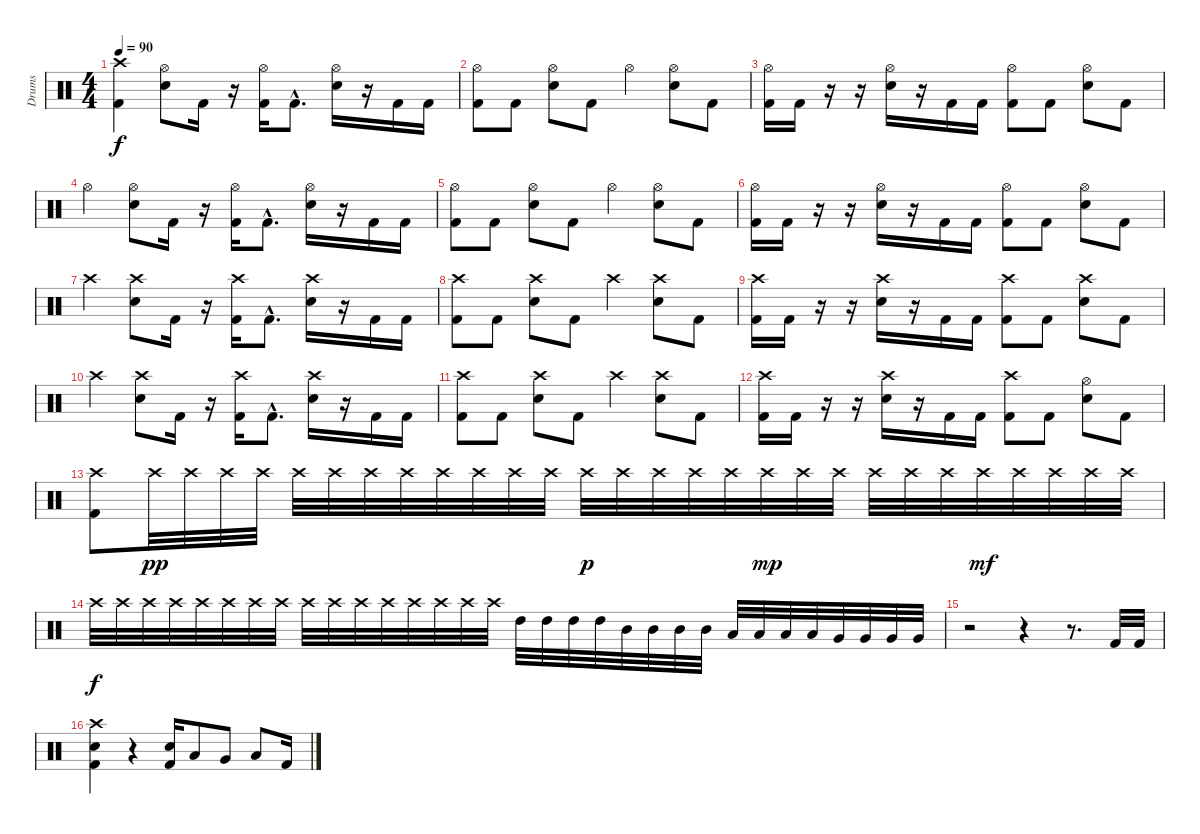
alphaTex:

\track ("Drums" "Drums") {instrument percussion}
\staff {score}
\articulation defaults
\ts (4 4)
\tempo 90
\clef neutral
\ks c
("Crash high (hit)" "Kick (hit) 2").4{dy f} ("Hi-Hat (open)" "Electric Snare (hit)").8 "Kick (hit) 2".16 r.16 ("Hi-Hat (open)" "Kick (hit) 2").16 "Kick (hit) 2"{hac}.8{d} ("Hi-Hat (open)" "Electric Snare (hit)").16 r.16 "Kick (hit) 2".16 "Kick (hit) 2".16 |
("Hi-Hat (open)" "Kick (hit) 2").8 "Kick (hit) 2".8 ("Hi-Hat (open)" "Electric Snare (hit)").8 "Kick (hit) 2".8 "Hi-Hat (open)".4 ("Hi-Hat (open)" "Electric Snare (hit)").8 "Kick (hit) 2".8 |
("Hi-Hat (open)" "Kick (hit) 2").16 "Kick (hit) 2".16 r.16 r.16 ("Hi-Hat (open)" "Electric Snare (hit)").16 r.16 "Kick (hit) 2".16 "Kick (hit) 2".16 ("Hi-Hat (open)" "Kick (hit) 2").8 "Kick (hit) 2".8 ("Hi-Hat (open)" "Electric Snare (hit)").8 "Kick (hit) 2".8 |
"Hi-Hat (open)".4 ("Hi-Hat (open)" "Electric Snare (hit)").8 "Kick (hit) 2".16 r.16 ("Hi-Hat (open)" "Kick (hit) 2").16 "Kick (hit) 2"{hac}.8{d} ("Hi-Hat (open)" "Electric Snare (hit)").16 r.16 "Kick (hit) 2".16 "Kick (hit) 2".16 |
("Hi-Hat (open)" "Kick (hit) 2").8 "Kick (hit) 2".8 ("Hi-Hat (open)" "Electric Snare (hit)").8 "Kick (hit) 2".8 "Hi-Hat (open)".4 ("Hi-Hat (open)" "Electric Snare (hit)").8 "Kick (hit) 2".8 |
("Hi-Hat (open)" "Kick (hit) 2").16 "Kick (hit) 2".16 r.16 r.16 ("Hi-Hat (open)" "Electric Snare (hit)").16 r.16 "Kick (hit) 2".16 "Kick (hit) 2".16 ("Hi-Hat (open)" "Kick (hit) 2").8 "Kick (hit) 2".8 ("Hi-Hat (open)" "Electric Snare (hit)").8 "Kick (hit) 2".8 |
"Crash high (hit)".4 ("Crash high (hit)" "Electric Snare (hit)").8 "Kick (hit) 2".16 r.16 ("Crash high (hit)" "Kick (hit) 2").16 "Kick (hit) 2"{hac}.8{d} ("Crash high (hit)" "Electric Snare (hit)").16 r.16 "Kick (hit) 2".16 "Kick (hit) 2".16 |
("Crash high (hit)" "Kick (hit) 2").8 "Kick (hit) 2".8 ("Crash high (hit)" "Electric Snare (hit)").8 "Kick (hit) 2".8 "Crash high (hit)".4 ("Crash high (hit)" "Electric Snare (hit)").8 "Kick (hit) 2".8 |
("Crash high (hit)" "Kick (hit) 2").16 "Kick (hit) 2".16 r.16 r.16 ("Crash high (hit)" "Electric Snare (hit)").16 r.16 "Kick (hit) 2".16 "Kick (hit) 2".16 ("Crash high (hit)" "Kick (hit) 2").8 "Kick (hit) 2".8 ("Crash high (hit)" "Electric Snare (hit)").8 "Kick (hit) 2".8 |
"Crash high (hit)".4 ("Crash high (hit)" "Electric Snare (hit)").8 "Kick (hit) 2".16 r.16 ("Crash high (hit)" "Kick (hit) 2").16 "Kick (hit) 2"{hac}.8{d} ("Crash high (hit)" "Electric Snare (hit)").16 r.16 "Kick (hit) 2".16 "Kick (hit) 2".16 |
("Crash high (hit)" "Kick (hit) 2").8 "Kick (hit) 2".8 ("Crash high (hit)" "Electric Snare (hit)").8 "Kick (hit) 2".8 "Crash high (hit)".4 ("Crash high (hit)" "Electric Snare (hit)").8 "Kick (hit) 2".8 |
("Crash high (hit)" "Kick (hit) 2").16 "Kick (hit) 2".16 r.16 r.16 ("Crash high (hit)" "Electric Snare (hit)").16 r.16 "Kick (hit) 2".16 "Kick (hit) 2".16 ("Crash high (hit)" "Kick (hit) 2").8 "Kick (hit) 2".8 ("Hi-Hat (open)" "Electric Snare (hit)").8 "Kick (hit) 2".8 |
("Crash high (hit)" "Kick (hit) 2").8 "Crash high (hit)".32{dy pp} "Crash high (hit)".32 "Crash high (hit)".32 "Crash high (hit)".32 "Crash high (hit)".32 "Crash high (hit)".32 "Crash high (hit)".32 "Crash high (hit)".32 "Crash high (hit)".32 "Crash high (hit)".32 "Crash high (hit)".32 "Crash high (hit)".32 "Crash high (hit)".32{dy p} "Crash high (hit)".32 "Crash high (hit)".32 "Crash high (hit)".32 "Crash high (hit)".32 "Crash high (hit)".32{dy mp} "Crash high (hit)".32 "Crash high (hit)".32 "Crash high (hit)".32 "Crash high (hit)".32 "Crash high (hit)".32 "Crash high (hit)".32{dy mf} "Crash high (hit)".32 "Crash high (hit)".32 "Crash high (hit)".32 "Crash high (hit)".32 |
"Crash high (hit)".32{dy f} "Crash high (hit)".32 "Crash high (hit)".32 "Crash high (hit)".32 "Crash high (hit)".32 "Crash high (hit)".32 "Crash high (hit)".32 "Crash high (hit)".32 "Crash high (hit)".32 "Crash high (hit)".32 "Crash high (hit)".32 "Crash high (hit)".32 "Crash high (hit)".32 "Crash high (hit)".32 "Crash high (hit)".32 "Crash high (hit)".32 "High Tom (hit)".32 "High Tom (hit)".32 "High Tom (hit)".32 "High Tom (hit)".32 "Mid Tom (hit)".32 "Mid Tom (hit)".32 "Mid Tom (hit)".32 "Mid Tom (hit)".32 "Low Tom (hit)".32 "Low Tom (hit)".32 "Low Tom (hit)".32 "Low Tom (hit)".32 "Very Low Tom (hit)".32 "Very Low Tom (hit)".32 "Very Low Tom (hit)".32 "Very Low Tom (hit)".32 |
r.2 r.4 r.8{d} "Kick (hit) 2".32 "Kick (hit) 2".32 |
("Crash high (hit)" "Electric Snare (hit)" "Kick (hit) 2").4 r.4 ("Electric Snare (hit)" "Kick (hit) 2").16 "Low Tom (hit)".8 "Very Low Tom (hit)".8 "Low Floor Tom (hit)".8 "Kick (hit) 2".16
